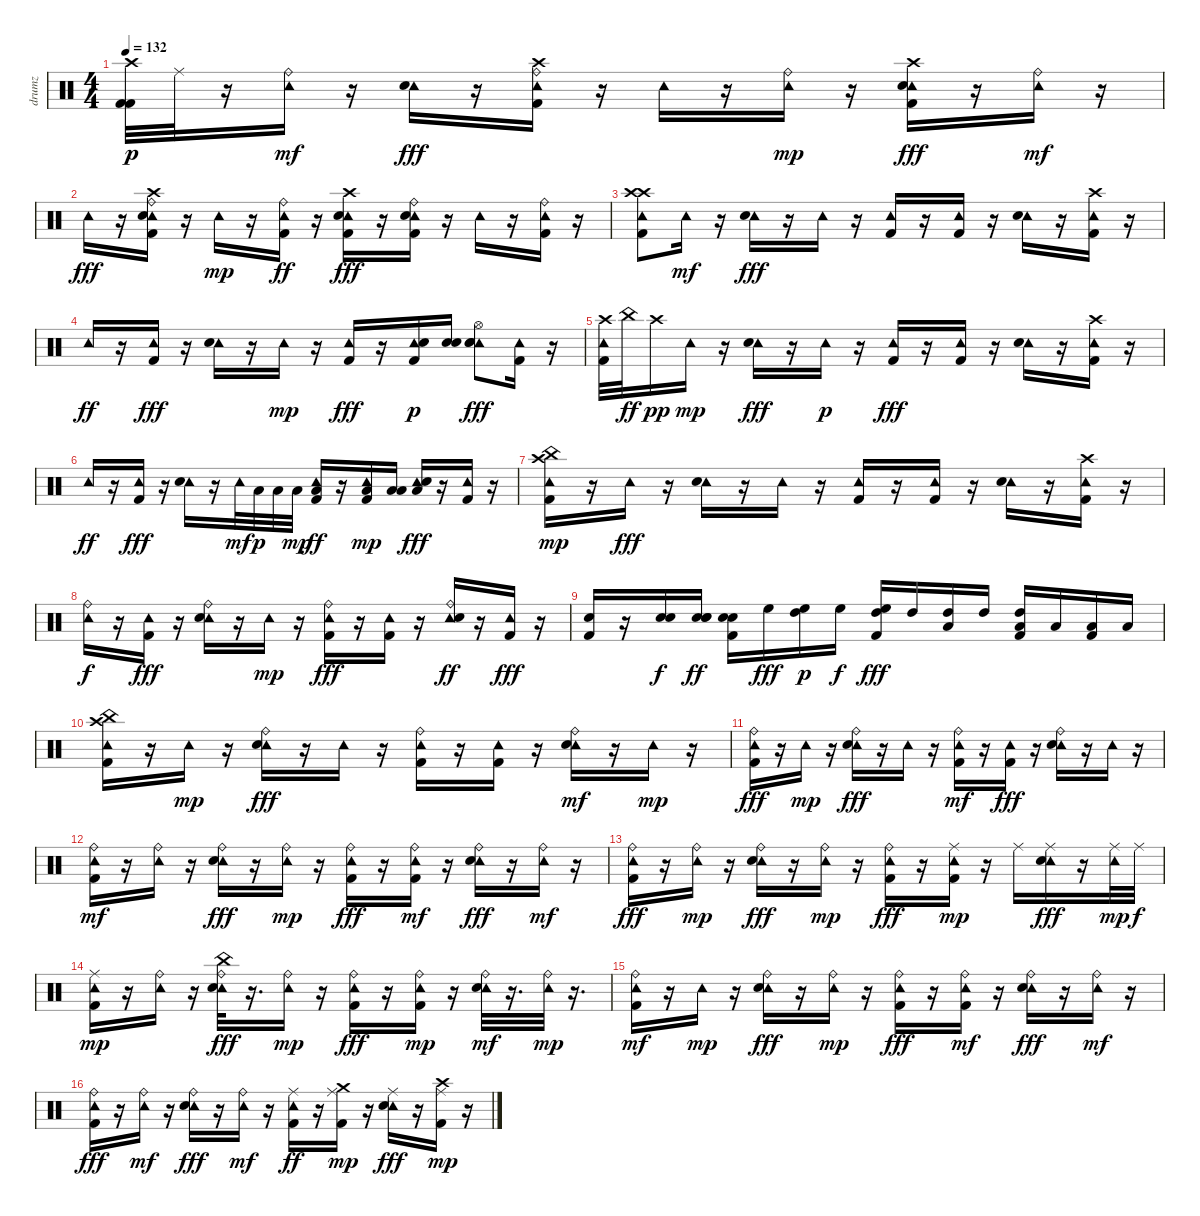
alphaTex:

\track ("drumz" "drumz") {instrument percussion}
\staff {score}
\articulation defaults
\ts (4 4)
\tempo 132
\clef neutral
\ks c
("Crash high (hit)" "Kick (hit) 2" "Kick (hit) 2").32{dy p} "Ride (middle)".32 r.16 ("Tambourine (hit)" "Ride (bell)").16{dy mf} r.16 ("Tambourine (hit)" "Snare (hit) 2").16{dy fff} r.16 ("Tambourine (hit)" "Crash high (hit)" "Kick (hit) 2" "Ride (bell)").16 r.16 "Tambourine (hit)".16 r.16 ("Tambourine (hit)" "Ride (bell)").16{dy mp} r.16 ("Tambourine (hit)" "Crash high (hit)" "Snare (hit) 2" "Kick (hit) 2").16{dy fff} r.16 ("Tambourine (hit)" "Ride (bell)").16{dy mf} r.16 |
"Tambourine (hit)".16{dy fff} r.16 ("Tambourine (hit)" "Crash high (hit)" "Snare (hit) 2" "Kick (hit) 2" "Ride (bell)").16 r.16 "Tambourine (hit)".16{dy mp} r.16 ("Tambourine (hit)" "Kick (hit) 2" "Ride (bell)").16{dy ff} r.16 ("Tambourine (hit)" "Crash high (hit)" "Snare (hit) 2" "Kick (hit) 2").16{dy fff} r.16 ("Tambourine (hit)" "Snare (hit) 2" "Kick (hit) 2" "Ride (bell)").16 r.16 "Tambourine (hit)".16 r.16 ("Tambourine (hit)" "Kick (hit) 2" "Ride (bell)").16 r.16 |
("Tambourine (hit)" "Crash high (hit)" "Kick (hit) 2" "Crash high (hit)").8 "Tambourine (hit)".16{dy mf} r.16 ("Tambourine (hit)" "Snare (hit) 2").16{dy fff} r.16 "Tambourine (hit)".16 r.16 ("Tambourine (hit)" "Kick (hit) 2").16 r.16 ("Tambourine (hit)" "Kick (hit) 2").16 r.16 ("Tambourine (hit)" "Snare (hit) 2").16 r.16 ("Tambourine (hit)" "Crash high (hit)" "Kick (hit) 2").16 r.16 |
"Tambourine (hit)".16{dy ff} r.16 ("Tambourine (hit)" "Kick (hit) 2").16{dy fff} r.16 ("Tambourine (hit)" "Snare (hit) 2").16 r.16 "Tambourine (hit)".16{dy mp} r.16 ("Tambourine (hit)" "Kick (hit) 2").16{dy fff} r.16 ("Tambourine (hit)" "Kick (hit) 2" "Snare (hit) 2").16{dy p} ("Snare (hit) 2" "Snare (hit) 2").16 ("Tambourine (hit)" "Snare (hit) 2" "Hi-Hat (open)" "Snare (hit) 2").8{dy fff} ("Tambourine (hit)" "Kick (hit) 2").16 r.16 |
("Tambourine (hit)" "Crash high (hit)" "Kick (hit) 2").32 "China (hit)".32{dy ff} "Crash high (hit)".16{dy pp} "Tambourine (hit)".16{dy mp} r.16 ("Tambourine (hit)" "Snare (hit) 2").16{dy fff} r.16 "Tambourine (hit)".16{dy p} r.16 ("Tambourine (hit)" "Kick (hit) 2").16{dy fff} r.16 ("Tambourine (hit)" "Kick (hit) 2").16 r.16 ("Tambourine (hit)" "Snare (hit) 2").16 r.16 ("Tambourine (hit)" "Crash high (hit)" "Kick (hit) 2").16 r.16 |
"Tambourine (hit)".16{dy ff} r.16 ("Tambourine (hit)" "Kick (hit) 2").16{dy fff} r.16 ("Tambourine (hit)" "Snare (hit) 2").16 r.16 "Tambourine (hit)".32{dy mf} "Low Tom (hit)".32{dy p} "Low Tom (hit)".32 "Low Tom (hit)".32{dy mp} ("Tambourine (hit)" "Kick (hit) 2" "Low Tom (hit)").16{dy ff} r.16 ("Tambourine (hit)" "Kick (hit) 2" "Low Floor Tom (hit)").16{dy mp} ("Low Floor Tom (hit)" "Low Floor Tom (hit)").16 ("Low Floor Tom (hit)" "Tambourine (hit)" "Snare (hit) 2").16{dy fff} r.16 ("Tambourine (hit)" "Kick (hit) 2").16 r.16 |
("Tambourine (hit)" "Crash high (hit)" "Kick (hit) 2" "China (hit)").16{dy mp} r.16 "Tambourine (hit)".16{dy fff} r.16 ("Tambourine (hit)" "Snare (hit) 2").16 r.16 "Tambourine (hit)".16 r.16 ("Tambourine (hit)" "Kick (hit) 2").16 r.16 ("Tambourine (hit)" "Kick (hit) 2").16 r.16 ("Tambourine (hit)" "Snare (hit) 2").16 r.16 ("Tambourine (hit)" "Crash high (hit)" "Kick (hit) 2").16 r.16 |
("Tambourine (hit)" "Ride (bell)").16{dy f} r.16 ("Tambourine (hit)" "Kick (hit) 2").16{dy fff} r.16 ("Tambourine (hit)" "Snare (hit) 2" "Ride (bell)").16 r.16 "Tambourine (hit)".16{dy mp} r.16 ("Tambourine (hit)" "Kick (hit) 2" "Ride (bell)").16{dy fff} r.16 ("Tambourine (hit)" "Kick (hit) 2").16 r.16 ("Tambourine (hit)" "Snare (hit) 2" "Ride (bell)").16{dy ff} r.16 ("Tambourine (hit)" "Kick (hit) 2").16{dy fff} r.16 |
("Snare (hit) 2" "Kick (hit) 2").16 r.16 ("Snare (hit) 2" "Snare (hit) 2").16{dy f} ("Snare (hit) 2" "Snare (hit) 2" "Snare (hit) 2").16{dy ff} ("Snare (hit) 2" "Kick (hit) 2" "Snare (hit) 2").16 "High Floor Tom (hit)".16{dy fff} ("High Tom (hit)" "High Floor Tom (hit)").16{dy p} "High Floor Tom (hit)".16{dy f} ("High Tom (hit)" "Kick (hit) 2" "High Floor Tom (hit)").16{dy fff} "High Tom (hit)".16 ("High Tom (hit)" "Low Tom (hit)").16 "High Tom (hit)".16 ("High Tom (hit)" "Low Tom (hit)" "Kick (hit) 2").16 "Low Tom (hit)".16 ("Low Floor Tom (hit)" "Kick (hit) 2").16 "Low Floor Tom (hit)".16 |
("Tambourine (hit)" "Crash high (hit)" "Kick (hit) 2" "China (hit)").16 r.16 "Tambourine (hit)".16{dy mp} r.16 ("Tambourine (hit)" "Snare (hit) 2" "Ride (bell)").16{dy fff} r.16 "Tambourine (hit)".16 r.16 ("Tambourine (hit)" "Kick (hit) 2" "Ride (bell)").16 r.16 ("Tambourine (hit)" "Kick (hit) 2").16 r.16 ("Tambourine (hit)" "Snare (hit) 2" "Ride (bell)").16{dy mf} r.16 "Tambourine (hit)".16{dy mp} r.16 |
("Tambourine (hit)" "Kick (hit) 2" "Ride (bell)").16{dy fff} r.16 "Tambourine (hit)".16{dy mp} r.16 ("Tambourine (hit)" "Snare (hit) 2" "Ride (bell)").16{dy fff} r.16 "Tambourine (hit)".16 r.16 ("Tambourine (hit)" "Kick (hit) 2" "Ride (bell)").16{dy mf} r.16 ("Tambourine (hit)" "Kick (hit) 2").16{dy fff} r.16 ("Tambourine (hit)" "Snare (hit) 2" "Ride (bell)").16 r.16 "Tambourine (hit)".16 r.16 |
("Tambourine (hit)" "Kick (hit) 2" "Ride (bell)").16{dy mf} r.16 ("Tambourine (hit)" "Ride (bell)").16 r.16 ("Tambourine (hit)" "Snare (hit) 2" "Ride (bell)").16{dy fff} r.16 ("Tambourine (hit)" "Ride (bell)").16{dy mp} r.16 ("Tambourine (hit)" "Kick (hit) 2" "Ride (bell)").16{dy fff} r.16 ("Tambourine (hit)" "Kick (hit) 2" "Ride (bell)").16{dy mf} r.16 ("Tambourine (hit)" "Snare (hit) 2" "Ride (bell)").16{dy fff} r.16 ("Tambourine (hit)" "Ride (bell)").16{dy mf} r.16 |
("Tambourine (hit)" "Kick (hit) 2" "Ride (bell)").16{dy fff} r.16 ("Tambourine (hit)" "Ride (bell)").16{dy mp} r.16 ("Tambourine (hit)" "Snare (hit) 2" "Ride (bell)").16{dy fff} r.16 ("Tambourine (hit)" "Ride (bell)").16{dy mp} r.16 ("Tambourine (hit)" "Kick (hit) 2" "Ride (bell)").16{dy fff} r.16 ("Tambourine (hit)" "Kick (hit) 2" "Ride (middle)").16{dy mp} r.16 "Ride (middle)".16 ("Ride (middle)" "Tambourine (hit)" "Snare (hit) 2").16{dy fff} r.16 ("Tambourine (hit)" "Ride (middle)").32{dy mp} "Ride (middle)".32{dy f} |
("Tambourine (hit)" "Kick (hit) 2" "Ride (middle)").16{dy mp} r.16 ("Tambourine (hit)" "Ride (bell)").16 r.16 ("Tambourine (hit)" "Snare (hit) 2" "China (hit)" "Ride (bell)").32{dy fff} r.16{d} ("Tambourine (hit)" "Ride (bell)").16{dy mp} r.16 ("Tambourine (hit)" "Kick (hit) 2" "Ride (bell)").16{dy fff} r.16 ("Tambourine (hit)" "Kick (hit) 2" "Ride (bell)").16{dy mp} r.16 ("Tambourine (hit)" "Snare (hit) 2" "Ride (bell)").32{dy mf} r.16{d} ("Tambourine (hit)" "Ride (bell)").32{dy mp} r.16{d} |
("Tambourine (hit)" "Kick (hit) 2" "Ride (bell)").16{dy mf} r.16 "Tambourine (hit)".16{dy mp} r.16 ("Tambourine (hit)" "Snare (hit) 2" "Ride (bell)").16{dy fff} r.16 ("Tambourine (hit)" "Ride (bell)").16{dy mp} r.16 ("Tambourine (hit)" "Kick (hit) 2" "Ride (bell)").16{dy fff} r.16 ("Tambourine (hit)" "Kick (hit) 2" "Ride (bell)").16{dy mf} r.16 ("Tambourine (hit)" "Snare (hit) 2" "Ride (bell)").16{dy fff} r.16 ("Tambourine (hit)" "Ride (bell)").16{dy mf} r.16 |
("Tambourine (hit)" "Kick (hit) 2" "Ride (bell)").16{dy fff} r.16 ("Tambourine (hit)" "Ride (bell)").16{dy mf} r.16 ("Tambourine (hit)" "Snare (hit) 2" "Ride (bell)").16{dy fff} r.16 ("Tambourine (hit)" "Ride (bell)").16{dy mf} r.16 ("Tambourine (hit)" "Kick (hit) 2" "Ride (middle)").16{dy ff} r.16 ("Crash medium (hit)" "Kick (hit) 2" "Ride (middle)").16{dy mp} r.16 ("Tambourine (hit)" "Snare (hit) 2" "Ride (middle)").16{dy fff} r.16 ("Crash high (hit)" "Kick (hit) 2" "Ride (middle)").16{dy mp} r.16
